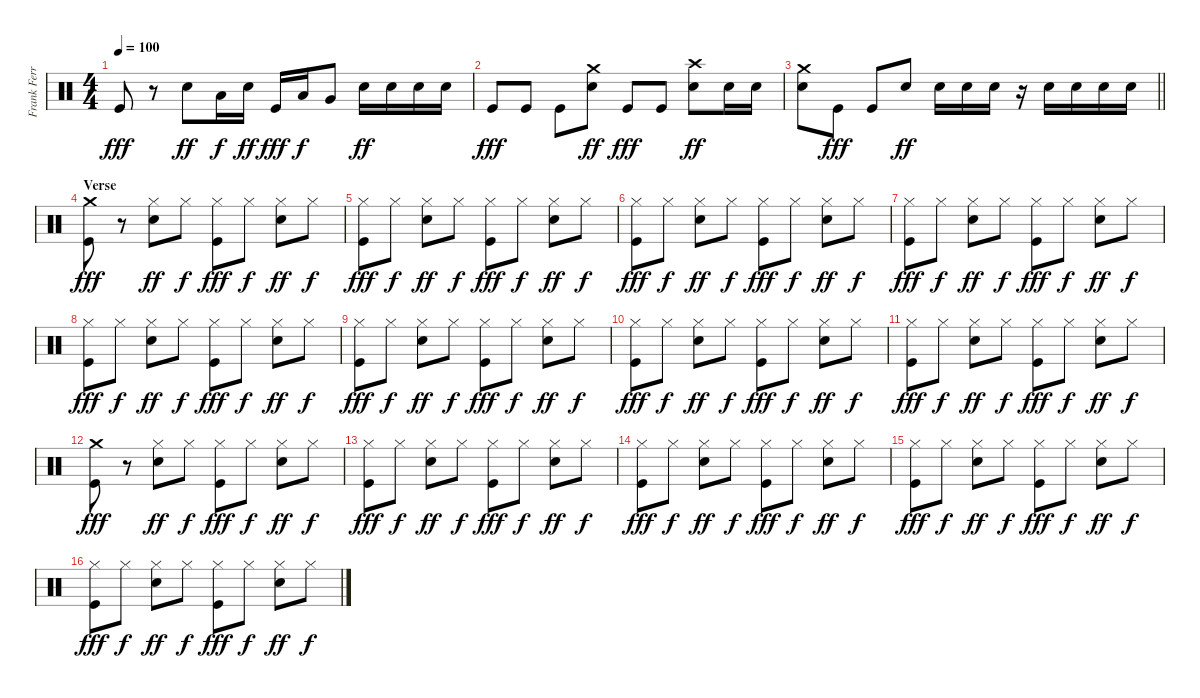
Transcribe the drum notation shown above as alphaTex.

\track ("Frank Ferrer" "Frank Ferr") {instrument percussion}
\staff {score}
\articulation defaults
\ts (4 4)
\tempo 100
\clef neutral
\ks c "Kick (hit)".8{dy fff}
r.8 "Snare (hit) 2".8{dy ff} "Low Tom (hit)".16{dy f} "Snare (hit) 2".16{dy ff} "Kick (hit)".16{dy fff} "Low Tom (hit)".16{dy f} "Very Low Tom (hit)".8 "Snare (hit) 2".16{dy ff} "Snare (hit) 2".16 "Snare (hit) 2".16 "Snare (hit) 2".16 |
"Kick (hit)".8{dy fff} "Kick (hit)".8 "Kick (hit)".8 ("Snare (hit) 2" "Crash medium (hit)").8{dy ff} "Kick (hit)".8{dy fff} "Kick (hit)".8 ("Snare (hit) 2" "Crash high (hit)").8{dy ff} "Snare (hit) 2".16 "Snare (hit) 2".16 |
\barLineRight lightlight
("Snare (hit) 2" "Crash medium (hit)").8 "Kick (hit)".8{dy fff} "Kick (hit)".8 "Snare (hit) 2".8{dy ff} "Snare (hit) 2".16 "Snare (hit) 2".16 "Snare (hit) 2".16 r.16 "Snare (hit) 2".16 "Snare (hit) 2".16 "Snare (hit) 2".16 "Snare (hit) 2".16 |
\section ("" "Verse")
("Kick (hit)" "Crash medium (hit)").8{dy fff} r.8 ("Snare (hit) 2" "Hi-Hat (closed)").8{dy ff} "Hi-Hat (closed)".8{dy f} ("Kick (hit)" "Hi-Hat (closed)").8{dy fff} "Hi-Hat (closed)".8{dy f} ("Snare (hit) 2" "Hi-Hat (closed)").8{dy ff} "Hi-Hat (closed)".8{dy f} |
("Kick (hit)" "Hi-Hat (closed)").8{dy fff} "Hi-Hat (closed)".8{dy f} ("Snare (hit) 2" "Hi-Hat (closed)").8{dy ff} "Hi-Hat (closed)".8{dy f} ("Kick (hit)" "Hi-Hat (closed)").8{dy fff} "Hi-Hat (closed)".8{dy f} ("Snare (hit) 2" "Hi-Hat (closed)").8{dy ff} "Hi-Hat (closed)".8{dy f} |
("Kick (hit)" "Hi-Hat (closed)").8{dy fff} "Hi-Hat (closed)".8{dy f} ("Snare (hit) 2" "Hi-Hat (closed)").8{dy ff} "Hi-Hat (closed)".8{dy f} ("Kick (hit)" "Hi-Hat (closed)").8{dy fff} "Hi-Hat (closed)".8{dy f} ("Snare (hit) 2" "Hi-Hat (closed)").8{dy ff} "Hi-Hat (closed)".8{dy f} |
("Kick (hit)" "Hi-Hat (closed)").8{dy fff} "Hi-Hat (closed)".8{dy f} ("Snare (hit) 2" "Hi-Hat (closed)").8{dy ff} "Hi-Hat (closed)".8{dy f} ("Kick (hit)" "Hi-Hat (closed)").8{dy fff} "Hi-Hat (closed)".8{dy f} ("Snare (hit) 2" "Hi-Hat (closed)").8{dy ff} "Hi-Hat (closed)".8{dy f} |
("Kick (hit)" "Hi-Hat (closed)").8{dy fff} "Hi-Hat (closed)".8{dy f} ("Snare (hit) 2" "Hi-Hat (closed)").8{dy ff} "Hi-Hat (closed)".8{dy f} ("Kick (hit)" "Hi-Hat (closed)").8{dy fff} "Hi-Hat (closed)".8{dy f} ("Snare (hit) 2" "Hi-Hat (closed)").8{dy ff} "Hi-Hat (closed)".8{dy f} |
("Kick (hit)" "Hi-Hat (closed)").8{dy fff} "Hi-Hat (closed)".8{dy f} ("Snare (hit) 2" "Hi-Hat (closed)").8{dy ff} "Hi-Hat (closed)".8{dy f} ("Kick (hit)" "Hi-Hat (closed)").8{dy fff} "Hi-Hat (closed)".8{dy f} ("Snare (hit) 2" "Hi-Hat (closed)").8{dy ff} "Hi-Hat (closed)".8{dy f} |
("Kick (hit)" "Hi-Hat (closed)").8{dy fff} "Hi-Hat (closed)".8{dy f} ("Snare (hit) 2" "Hi-Hat (closed)").8{dy ff} "Hi-Hat (closed)".8{dy f} ("Kick (hit)" "Hi-Hat (closed)").8{dy fff} "Hi-Hat (closed)".8{dy f} ("Snare (hit) 2" "Hi-Hat (closed)").8{dy ff} "Hi-Hat (closed)".8{dy f} |
("Kick (hit)" "Hi-Hat (closed)").8{dy fff} "Hi-Hat (closed)".8{dy f} ("Snare (hit) 2" "Hi-Hat (closed)").8{dy ff} "Hi-Hat (closed)".8{dy f} ("Kick (hit)" "Hi-Hat (closed)").8{dy fff} "Hi-Hat (closed)".8{dy f} ("Snare (hit) 2" "Hi-Hat (closed)").8{dy ff} "Hi-Hat (closed)".8{dy f} |
("Kick (hit)" "Crash medium (hit)").8{dy fff} r.8 ("Snare (hit) 2" "Hi-Hat (closed)").8{dy ff} "Hi-Hat (closed)".8{dy f} ("Kick (hit)" "Hi-Hat (closed)").8{dy fff} "Hi-Hat (closed)".8{dy f} ("Snare (hit) 2" "Hi-Hat (closed)").8{dy ff} "Hi-Hat (closed)".8{dy f} |
("Kick (hit)" "Hi-Hat (closed)").8{dy fff} "Hi-Hat (closed)".8{dy f} ("Snare (hit) 2" "Hi-Hat (closed)").8{dy ff} "Hi-Hat (closed)".8{dy f} ("Kick (hit)" "Hi-Hat (closed)").8{dy fff} "Hi-Hat (closed)".8{dy f} ("Snare (hit) 2" "Hi-Hat (closed)").8{dy ff} "Hi-Hat (closed)".8{dy f} |
("Kick (hit)" "Hi-Hat (closed)").8{dy fff} "Hi-Hat (closed)".8{dy f} ("Snare (hit) 2" "Hi-Hat (closed)").8{dy ff} "Hi-Hat (closed)".8{dy f} ("Kick (hit)" "Hi-Hat (closed)").8{dy fff} "Hi-Hat (closed)".8{dy f} ("Snare (hit) 2" "Hi-Hat (closed)").8{dy ff} "Hi-Hat (closed)".8{dy f} |
("Kick (hit)" "Hi-Hat (closed)").8{dy fff} "Hi-Hat (closed)".8{dy f} ("Snare (hit) 2" "Hi-Hat (closed)").8{dy ff} "Hi-Hat (closed)".8{dy f} ("Kick (hit)" "Hi-Hat (closed)").8{dy fff} "Hi-Hat (closed)".8{dy f} ("Snare (hit) 2" "Hi-Hat (closed)").8{dy ff} "Hi-Hat (closed)".8{dy f} |
("Kick (hit)" "Hi-Hat (closed)").8{dy fff} "Hi-Hat (closed)".8{dy f} ("Snare (hit) 2" "Hi-Hat (closed)").8{dy ff} "Hi-Hat (closed)".8{dy f} ("Kick (hit)" "Hi-Hat (closed)").8{dy fff} "Hi-Hat (closed)".8{dy f} ("Snare (hit) 2" "Hi-Hat (closed)").8{dy ff} "Hi-Hat (closed)".8{dy f}
